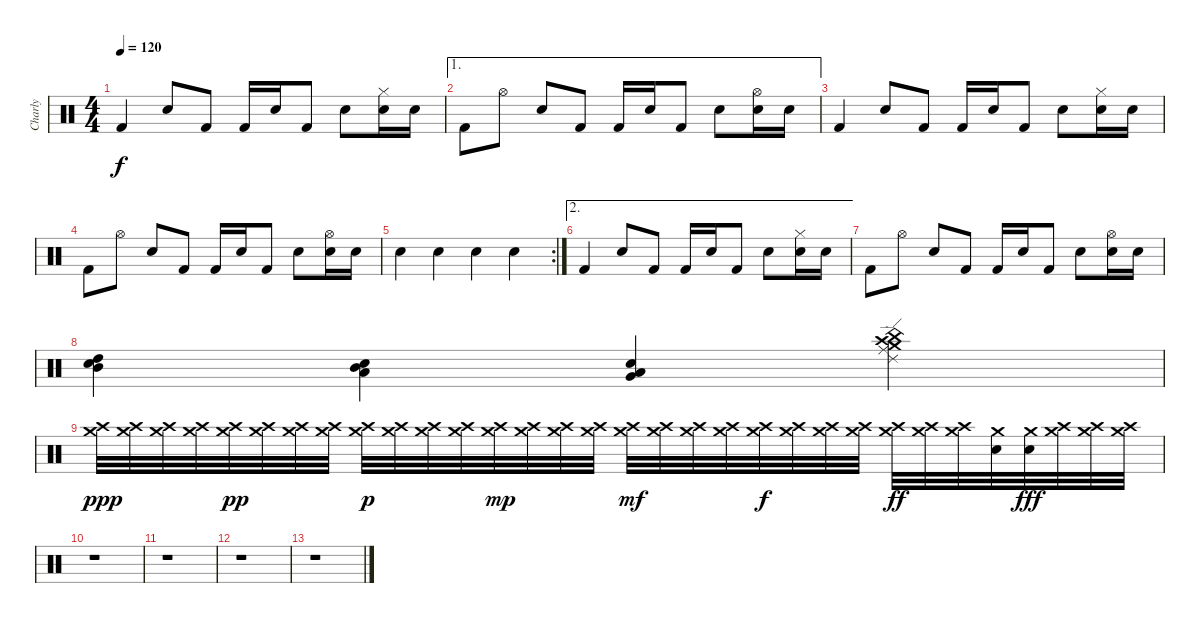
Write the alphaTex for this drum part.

\track ("Charly" "Charly") {instrument percussion}
\staff {score}
\articulation defaults
\ts (4 4)
\tempo 120
\clef neutral
\ks c "Kick (hit) 2".4{dy f} "Snare (hit) 2".8 "Kick (hit) 2".8 "Kick (hit) 2".16 "Snare (hit) 2".16 "Kick (hit) 2".8 "Snare (hit) 2".8
("Hi-Hat (closed)" "Snare (hit) 2").16 "Snare (hit) 2".16 |
\ae 1 "Kick (hit) 2".8 "Hi-Hat (open)".8 "Snare (hit) 2".8 "Kick (hit) 2".8 "Kick (hit) 2".16 "Snare (hit) 2".16 "Kick (hit) 2".8 "Snare (hit) 2".8
("Hi-Hat (open)" "Snare (hit) 2").16 "Snare (hit) 2".16 |
"Kick (hit) 2".4 "Snare (hit) 2".8 "Kick (hit) 2".8 "Kick (hit) 2".16 "Snare (hit) 2".16 "Kick (hit) 2".8 "Snare (hit) 2".8 ("Hi-Hat (closed)" "Snare (hit) 2").16 "Snare (hit) 2".16 |
"Kick (hit) 2".8 "Hi-Hat (open)".8 "Snare (hit) 2".8 "Kick (hit) 2".8 "Kick (hit) 2".16 "Snare (hit) 2".16 "Kick (hit) 2".8 "Snare (hit) 2".8 ("Hi-Hat (open)" "Snare (hit) 2").16 "Snare (hit) 2".16 |
\rc 2 "Snare (hit) 2".4 "Snare (hit) 2".4 "Snare (hit) 2".4 "Snare (hit) 2".4
|
\ae 2 "Kick (hit) 2".4 "Snare (hit) 2".8 "Kick (hit) 2".8 "Kick (hit) 2".16 "Snare (hit) 2".16 "Kick (hit) 2".8 "Snare (hit) 2".8
("Hi-Hat (closed)" "Snare (hit) 2").16 "Snare (hit) 2".16 |
"Kick (hit) 2".8 "Hi-Hat (open)".8 "Snare (hit) 2".8 "Kick (hit) 2".8 "Kick (hit) 2".16 "Snare (hit) 2".16 "Kick (hit) 2".8 "Snare (hit) 2".8 ("Hi-Hat (open)" "Snare (hit) 2").16 "Snare (hit) 2".16 |
("Mid Tom (hit)" "High Tom (hit)" "Snare (hit) 2").4 ("Mid Tom (hit)" "Low Tom (hit)" "Snare (hit) 2").4 ("Snare (hit) 2" "Very Low Tom (hit)" "Low Tom (hit)").4 ("Ride (edge) 2" "Crash medium (hit)" "Crash high (hit)" "China (hit)" "Ride (middle)").4 |
("Crash high (hit)" "Crash medium (hit)").32{dy ppp} ("Crash high (hit)" "Crash medium (hit)").32 ("Crash high (hit)" "Crash medium (hit)").32 ("Crash high (hit)" "Crash medium (hit)").32 ("Crash high (hit)" "Crash medium (hit)").32{dy pp} ("Crash high (hit)" "Crash medium (hit)").32 ("Crash high (hit)" "Crash medium (hit)").32 ("Crash high (hit)" "Crash medium (hit)").32 ("Crash high (hit)" "Crash medium (hit)").32{dy p} ("Crash high (hit)" "Crash medium (hit)").32 ("Crash high (hit)" "Crash medium (hit)").32 ("Crash high (hit)" "Crash medium (hit)").32 ("Crash high (hit)" "Crash medium (hit)").32{dy mp} ("Crash high (hit)" "Crash medium (hit)").32 ("Crash high (hit)" "Crash medium (hit)").32 ("Crash high (hit)" "Crash medium (hit)").32 ("Crash high (hit)" "Crash medium (hit)").32{dy mf} ("Crash high (hit)" "Crash medium (hit)").32 ("Crash high (hit)" "Crash medium (hit)").32 ("Crash high (hit)" "Crash medium (hit)").32 ("Crash high (hit)" "Crash medium (hit)").32{dy f} ("Crash high (hit)" "Crash medium (hit)").32 ("Crash high (hit)" "Crash medium (hit)").32 ("Crash high (hit)" "Crash medium (hit)").32 ("Crash high (hit)" "Crash medium (hit)").32{dy ff} ("Crash high (hit)" "Crash medium (hit)").32 ("Crash high (hit)" "Crash medium (hit)").32 ("Snare (hit)" "Crash medium (hit)").32 ("Snare (hit)" "Crash medium (hit)").32{dy fff} ("Crash high (hit)" "Crash medium (hit)").32 ("Crash high (hit)" "Crash medium (hit)").32 ("Crash high (hit)" "Crash medium (hit)").32 |
r.1 |
r.1 |
r.1 |
r.1
